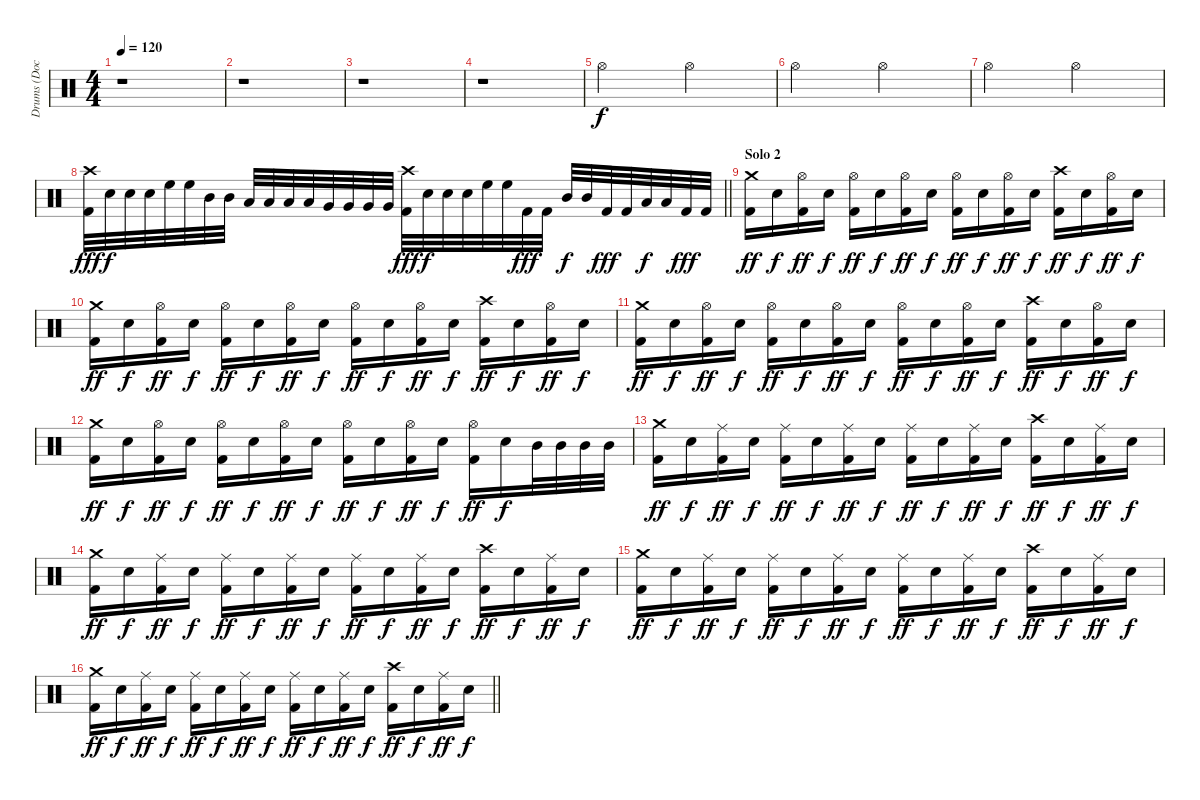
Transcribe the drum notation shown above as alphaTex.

\track ("Drums (Doc)" "Drums (Doc") {instrument percussion}
\staff {score}
\articulation defaults
\ts (4 4)
\tempo 120
\clef neutral
\ks c
r.1{dy fff} |
r.1 |
r.1 |
r.1 |
"Hi-Hat (open)".2{dy f} "Hi-Hat (open)".2 |
"Hi-Hat (open)".2 "Hi-Hat (open)".2 |
"Hi-Hat (open)".2 "Hi-Hat (open)".2 |
\barLineRight lightlight
("Crash high (hit)" "Kick (hit) 2").32{dy fff} "Electric Snare (hit)".32{dy f} "Electric Snare (hit)".32 "Electric Snare (hit)".32 "High Floor Tom (hit)".32 "High Floor Tom (hit)".32 "Mid Tom (hit)".32 "Mid Tom (hit)".32 "Low Tom (hit)".32 "Low Tom (hit)".32 "Low Tom (hit)".32 "Low Tom (hit)".32 "Very Low Tom (hit)".32 "Very Low Tom (hit)".32 "Very Low Tom (hit)".32 "Very Low Tom (hit)".32 ("Crash high (hit)" "Kick (hit) 2").32{dy fff} "Electric Snare (hit)".32{dy f} "Electric Snare (hit)".32 "Electric Snare (hit)".32 "High Floor Tom (hit)".32 "High Floor Tom (hit)".32 "Kick (hit) 2".32{dy fff} "Kick (hit) 2".32 "Mid Tom (hit)".32{dy f} "Mid Tom (hit)".32 "Kick (hit) 2".32{dy fff} "Kick (hit) 2".32 "Low Tom (hit)".32{dy f} "Low Tom (hit)".32 "Kick (hit) 2".32{dy fff} "Kick (hit) 2".32 |
\section ("" "Solo 2")
("Crash medium (hit)" "Kick (hit) 2").16{dy ff} "Electric Snare (hit)".16{dy f} ("Hi-Hat (open)" "Kick (hit) 2").16{dy ff} "Electric Snare (hit)".16{dy f} ("Hi-Hat (open)" "Kick (hit) 2").16{dy ff} "Electric Snare (hit)".16{dy f} ("Hi-Hat (open)" "Kick (hit) 2").16{dy ff} "Electric Snare (hit)".16{dy f} ("Hi-Hat (open)" "Kick (hit) 2").16{dy ff} "Electric Snare (hit)".16{dy f} ("Hi-Hat (open)" "Kick (hit) 2").16{dy ff} "Electric Snare (hit)".16{dy f} ("Crash high (hit)" "Kick (hit) 2").16{dy ff} "Electric Snare (hit)".16{dy f} ("Hi-Hat (open)" "Kick (hit) 2").16{dy ff} "Electric Snare (hit)".16{dy f} |
("Crash medium (hit)" "Kick (hit) 2").16{dy ff} "Electric Snare (hit)".16{dy f} ("Hi-Hat (open)" "Kick (hit) 2").16{dy ff} "Electric Snare (hit)".16{dy f} ("Hi-Hat (open)" "Kick (hit) 2").16{dy ff} "Electric Snare (hit)".16{dy f} ("Hi-Hat (open)" "Kick (hit) 2").16{dy ff} "Electric Snare (hit)".16{dy f} ("Hi-Hat (open)" "Kick (hit) 2").16{dy ff} "Electric Snare (hit)".16{dy f} ("Hi-Hat (open)" "Kick (hit) 2").16{dy ff} "Electric Snare (hit)".16{dy f} ("Crash high (hit)" "Kick (hit) 2").16{dy ff} "Electric Snare (hit)".16{dy f} ("Hi-Hat (open)" "Kick (hit) 2").16{dy ff} "Electric Snare (hit)".16{dy f} |
("Crash medium (hit)" "Kick (hit) 2").16{dy ff} "Electric Snare (hit)".16{dy f} ("Hi-Hat (open)" "Kick (hit) 2").16{dy ff} "Electric Snare (hit)".16{dy f} ("Hi-Hat (open)" "Kick (hit) 2").16{dy ff} "Electric Snare (hit)".16{dy f} ("Hi-Hat (open)" "Kick (hit) 2").16{dy ff} "Electric Snare (hit)".16{dy f} ("Hi-Hat (open)" "Kick (hit) 2").16{dy ff} "Electric Snare (hit)".16{dy f} ("Hi-Hat (open)" "Kick (hit) 2").16{dy ff} "Electric Snare (hit)".16{dy f} ("Crash high (hit)" "Kick (hit) 2").16{dy ff} "Electric Snare (hit)".16{dy f} ("Hi-Hat (open)" "Kick (hit) 2").16{dy ff} "Electric Snare (hit)".16{dy f} |
("Crash medium (hit)" "Kick (hit) 2").16{dy ff} "Electric Snare (hit)".16{dy f} ("Hi-Hat (open)" "Kick (hit) 2").16{dy ff} "Electric Snare (hit)".16{dy f} ("Hi-Hat (open)" "Kick (hit) 2").16{dy ff} "Electric Snare (hit)".16{dy f} ("Hi-Hat (open)" "Kick (hit) 2").16{dy ff} "Electric Snare (hit)".16{dy f} ("Hi-Hat (open)" "Kick (hit) 2").16{dy ff} "Electric Snare (hit)".16{dy f} ("Hi-Hat (open)" "Kick (hit) 2").16{dy ff} "Electric Snare (hit)".16{dy f} ("Hi-Hat (open)" "Kick (hit) 2").16{dy ff} "Electric Snare (hit)".16{dy f} "Mid Tom (hit)".32 "Mid Tom (hit)".32 "Mid Tom (hit)".32 "Mid Tom (hit)".32 |
("Crash medium (hit)" "Kick (hit) 2").16{dy ff} "Electric Snare (hit)".16{dy f} ("Ride (middle)" "Kick (hit) 2").16{dy ff} "Electric Snare (hit)".16{dy f} ("Ride (middle)" "Kick (hit) 2").16{dy ff} "Electric Snare (hit)".16{dy f} ("Ride (middle)" "Kick (hit) 2").16{dy ff} "Electric Snare (hit)".16{dy f} ("Ride (middle)" "Kick (hit) 2").16{dy ff} "Electric Snare (hit)".16{dy f} ("Ride (middle)" "Kick (hit) 2").16{dy ff} "Electric Snare (hit)".16{dy f} ("Crash high (hit)" "Kick (hit) 2").16{dy ff} "Electric Snare (hit)".16{dy f} ("Ride (middle)" "Kick (hit) 2").16{dy ff} "Electric Snare (hit)".16{dy f} |
("Crash medium (hit)" "Kick (hit) 2").16{dy ff} "Electric Snare (hit)".16{dy f} ("Ride (middle)" "Kick (hit) 2").16{dy ff} "Electric Snare (hit)".16{dy f} ("Ride (middle)" "Kick (hit) 2").16{dy ff} "Electric Snare (hit)".16{dy f} ("Ride (middle)" "Kick (hit) 2").16{dy ff} "Electric Snare (hit)".16{dy f} ("Ride (middle)" "Kick (hit) 2").16{dy ff} "Electric Snare (hit)".16{dy f} ("Ride (middle)" "Kick (hit) 2").16{dy ff} "Electric Snare (hit)".16{dy f} ("Crash high (hit)" "Kick (hit) 2").16{dy ff} "Electric Snare (hit)".16{dy f} ("Ride (middle)" "Kick (hit) 2").16{dy ff} "Electric Snare (hit)".16{dy f} |
("Crash medium (hit)" "Kick (hit) 2").16{dy ff} "Electric Snare (hit)".16{dy f} ("Ride (middle)" "Kick (hit) 2").16{dy ff} "Electric Snare (hit)".16{dy f} ("Ride (middle)" "Kick (hit) 2").16{dy ff} "Electric Snare (hit)".16{dy f} ("Ride (middle)" "Kick (hit) 2").16{dy ff} "Electric Snare (hit)".16{dy f} ("Ride (middle)" "Kick (hit) 2").16{dy ff} "Electric Snare (hit)".16{dy f} ("Ride (middle)" "Kick (hit) 2").16{dy ff} "Electric Snare (hit)".16{dy f} ("Crash high (hit)" "Kick (hit) 2").16{dy ff} "Electric Snare (hit)".16{dy f} ("Ride (middle)" "Kick (hit) 2").16{dy ff} "Electric Snare (hit)".16{dy f} |
\barLineRight lightlight
("Crash medium (hit)" "Kick (hit) 2").16{dy ff} "Electric Snare (hit)".16{dy f} ("Ride (middle)" "Kick (hit) 2").16{dy ff} "Electric Snare (hit)".16{dy f} ("Ride (middle)" "Kick (hit) 2").16{dy ff} "Electric Snare (hit)".16{dy f} ("Ride (middle)" "Kick (hit) 2").16{dy ff} "Electric Snare (hit)".16{dy f} ("Ride (middle)" "Kick (hit) 2").16{dy ff} "Electric Snare (hit)".16{dy f} ("Ride (middle)" "Kick (hit) 2").16{dy ff} "Electric Snare (hit)".16{dy f} ("Crash high (hit)" "Kick (hit) 2").16{dy ff} "Electric Snare (hit)".16{dy f} ("Ride (middle)" "Kick (hit) 2").16{dy ff} "Electric Snare (hit)".16{dy f}
